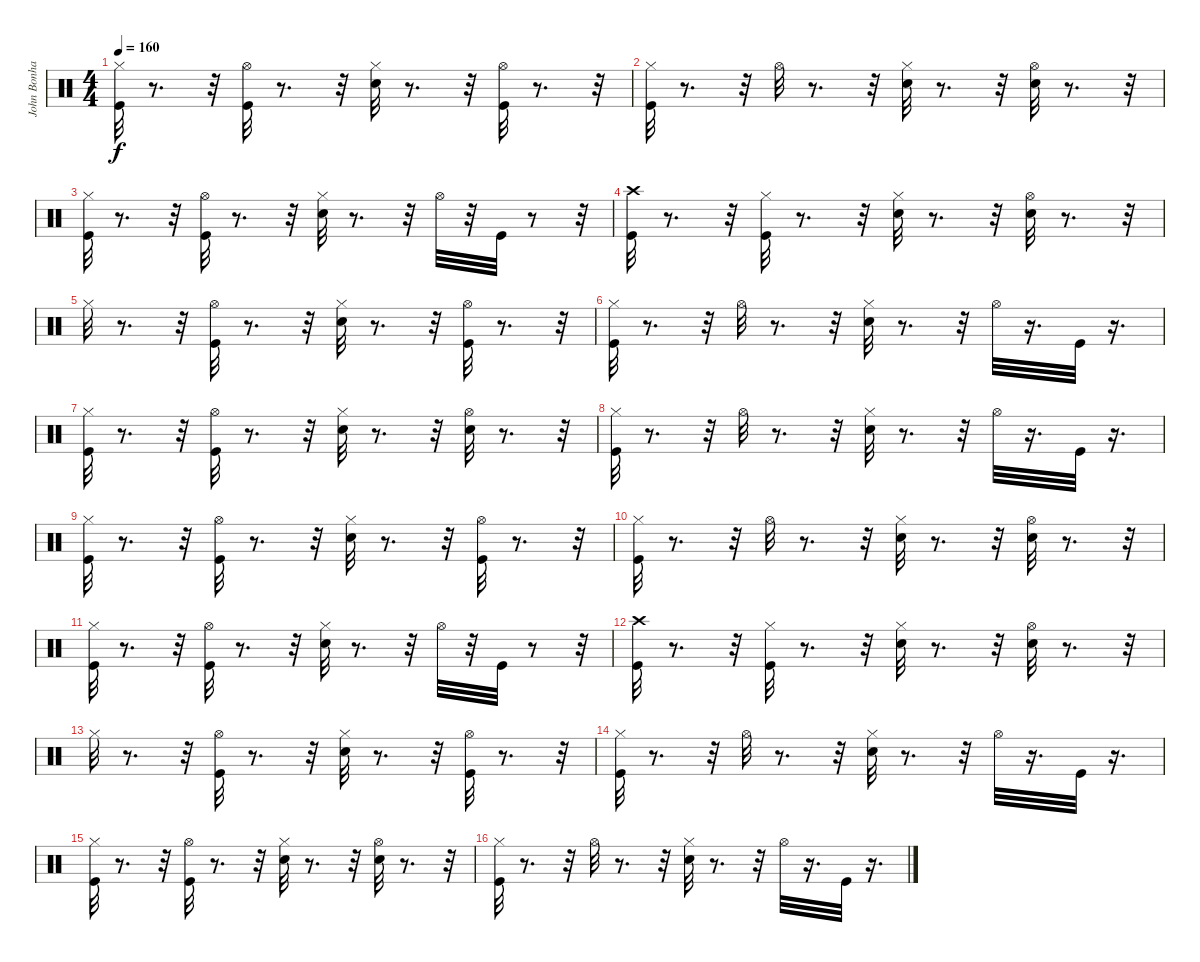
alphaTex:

\track ("John Bonham" "John Bonha") {instrument percussion}
\staff {score}
\articulation defaults
\ts (4 4)
\tempo 160
\clef neutral
\ks c
("Hi-Hat (closed)" "Kick (hit)").32{dy f} r.8{d} r.32 ("Hi-Hat (open)" "Kick (hit)").32 r.8{d} r.32 ("Hi-Hat (closed)" "Snare (hit) 2").32 r.8{d} r.32 ("Hi-Hat (open)" "Kick (hit)").32 r.8{d} r.32 |
("Hi-Hat (closed)" "Kick (hit)").32 r.8{d} r.32 "Hi-Hat (open)".32 r.8{d} r.32 ("Snare (hit) 2" "Hi-Hat (closed)").32 r.8{d} r.32 ("Snare (hit) 2" "Hi-Hat (open)").32 r.8{d} r.32 |
("Hi-Hat (closed)" "Kick (hit)").32 r.8{d} r.32 ("Hi-Hat (open)" "Kick (hit)").32 r.8{d} r.32 ("Hi-Hat (closed)" "Snare (hit) 2").32 r.8{d} r.32 "Hi-Hat (open)".32 r.32 "Kick (hit)".32 r.8 r.32 |
("Kick (hit)" "Crash high (hit)").32 r.8{d} r.32 ("Hi-Hat (closed)" "Kick (hit)").32 r.8{d} r.32 ("Hi-Hat (closed)" "Snare (hit) 2").32 r.8{d} r.32 ("Snare (hit) 2" "Hi-Hat (open)").32 r.8{d} r.32 |
"Hi-Hat (closed)".32 r.8{d} r.32 ("Kick (hit)" "Hi-Hat (open)").32 r.8{d} r.32 ("Snare (hit) 2" "Hi-Hat (closed)").32 r.8{d} r.32 ("Kick (hit)" "Hi-Hat (open)").32 r.8{d} r.32 |
("Kick (hit)" "Hi-Hat (closed)").32 r.8{d} r.32 "Hi-Hat (open)".32 r.8{d} r.32 ("Snare (hit) 2" "Hi-Hat (closed)").32 r.8{d} r.32 "Hi-Hat (open)".32 r.16{d} "Kick (hit)".32 r.16{d} |
("Hi-Hat (closed)" "Kick (hit)").32 r.8{d} r.32 ("Hi-Hat (open)" "Kick (hit)").32 r.8{d} r.32 ("Hi-Hat (closed)" "Snare (hit) 2").32 r.8{d} r.32 ("Hi-Hat (open)" "Snare (hit) 2").32 r.8{d} r.32 |
("Hi-Hat (closed)" "Kick (hit)").32 r.8{d} r.32 "Hi-Hat (open)".32 r.8{d} r.32 ("Snare (hit) 2" "Hi-Hat (closed)").32 r.8{d} r.32 "Hi-Hat (open)".32 r.16{d} "Kick (hit)".32 r.16{d} |
("Hi-Hat (closed)" "Kick (hit)").32 r.8{d} r.32 ("Hi-Hat (open)" "Kick (hit)").32 r.8{d} r.32 ("Hi-Hat (closed)" "Snare (hit) 2").32 r.8{d} r.32 ("Hi-Hat (open)" "Kick (hit)").32 r.8{d} r.32 |
("Hi-Hat (closed)" "Kick (hit)").32 r.8{d} r.32 "Hi-Hat (open)".32 r.8{d} r.32 ("Snare (hit) 2" "Hi-Hat (closed)").32 r.8{d} r.32 ("Snare (hit) 2" "Hi-Hat (open)").32 r.8{d} r.32 |
("Hi-Hat (closed)" "Kick (hit)").32 r.8{d} r.32 ("Hi-Hat (open)" "Kick (hit)").32 r.8{d} r.32 ("Hi-Hat (closed)" "Snare (hit) 2").32 r.8{d} r.32 "Hi-Hat (open)".32 r.32 "Kick (hit)".32 r.8 r.32 |
("Kick (hit)" "Crash high (hit)").32 r.8{d} r.32 ("Hi-Hat (closed)" "Kick (hit)").32 r.8{d} r.32 ("Hi-Hat (closed)" "Snare (hit) 2").32 r.8{d} r.32 ("Snare (hit) 2" "Hi-Hat (open)").32 r.8{d} r.32 |
"Hi-Hat (closed)".32 r.8{d} r.32 ("Kick (hit)" "Hi-Hat (open)").32 r.8{d} r.32 ("Snare (hit) 2" "Hi-Hat (closed)").32 r.8{d} r.32 ("Kick (hit)" "Hi-Hat (open)").32 r.8{d} r.32 |
("Kick (hit)" "Hi-Hat (closed)").32 r.8{d} r.32 "Hi-Hat (open)".32 r.8{d} r.32 ("Snare (hit) 2" "Hi-Hat (closed)").32 r.8{d} r.32 "Hi-Hat (open)".32 r.16{d} "Kick (hit)".32 r.16{d} |
("Hi-Hat (closed)" "Kick (hit)").32 r.8{d} r.32 ("Hi-Hat (open)" "Kick (hit)").32 r.8{d} r.32 ("Hi-Hat (closed)" "Snare (hit) 2").32 r.8{d} r.32 ("Hi-Hat (open)" "Snare (hit) 2").32 r.8{d} r.32 |
("Hi-Hat (closed)" "Kick (hit)").32 r.8{d} r.32 "Hi-Hat (open)".32 r.8{d} r.32 ("Snare (hit) 2" "Hi-Hat (closed)").32 r.8{d} r.32 "Hi-Hat (open)".32 r.16{d} "Kick (hit)".32 r.16{d}
